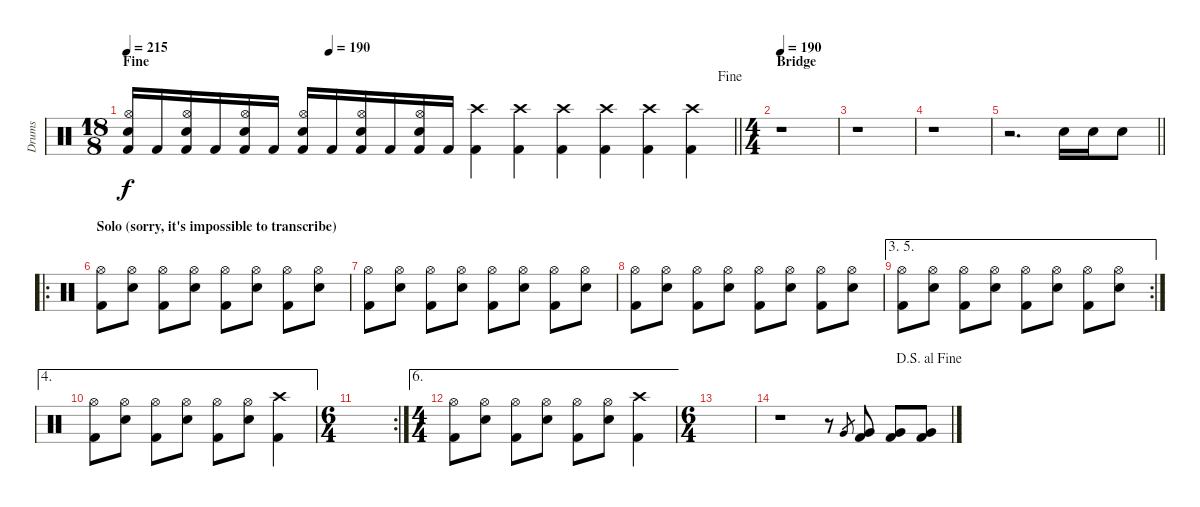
\track ("Drums" "Drums") {instrument percussion bank 127}
\staff {score}
\articulation defaults
\ts (18 8)
\section ("" "Fine")
\jump fine
\tempo 215
\tempo (190 0.3333333333333333)
\clef neutral
\barLineRight lightlight
\ks c
("Electric Snare (hit)" "Hi-Hat (open)" "Kick (hit) 2").16{dy f} "Kick (hit) 2".16 ("Electric Snare (hit)" "Hi-Hat (open)" "Kick (hit) 2").16 "Kick (hit) 2".16 ("Electric Snare (hit)" "Hi-Hat (open)" "Kick (hit) 2").16 "Kick (hit) 2".16 ("Electric Snare (hit)" "Hi-Hat (open)" "Kick (hit) 2").16 "Kick (hit) 2".16 ("Electric Snare (hit)" "Hi-Hat (open)" "Kick (hit) 2").16 "Kick (hit) 2".16 ("Electric Snare (hit)" "Hi-Hat (open)" "Kick (hit) 2").16 "Kick (hit) 2".16 ("Crash high (hit)" "Kick (hit) 2").4 ("Crash high (hit)" "Kick (hit) 2").4 ("Crash high (hit)" "Kick (hit) 2").4 ("Crash high (hit)" "Kick (hit) 2").4 ("Crash high (hit)" "Kick (hit) 2").4 ("Crash high (hit)" "Kick (hit) 2").4 |
\ts (4 4)
\section ("" "Bridge")
\tempo 190
r.1 |
r.1 |
r.1 |
\barLineRight lightlight
r.2{d} "Electric Snare (hit)".16 "Electric Snare (hit)".16 "Electric Snare (hit)".8 |
\ro
\section ("" "Solo (sorry, it's impossible to transcribe)")
("Hi-Hat (open)" "Kick (hit) 2").8 ("Hi-Hat (open)" "Electric Snare (hit)").8 ("Hi-Hat (open)" "Kick (hit) 2").8 ("Hi-Hat (open)" "Electric Snare (hit)").8 ("Hi-Hat (open)" "Kick (hit) 2").8 ("Hi-Hat (open)" "Electric Snare (hit)").8 ("Hi-Hat (open)" "Kick (hit) 2").8 ("Hi-Hat (open)" "Electric Snare (hit)").8 |
("Hi-Hat (open)" "Kick (hit) 2").8 ("Hi-Hat (open)" "Electric Snare (hit)").8 ("Hi-Hat (open)" "Kick (hit) 2").8 ("Hi-Hat (open)" "Electric Snare (hit)").8 ("Hi-Hat (open)" "Kick (hit) 2").8 ("Hi-Hat (open)" "Electric Snare (hit)").8 ("Hi-Hat (open)" "Kick (hit) 2").8 ("Hi-Hat (open)" "Electric Snare (hit)").8 |
("Hi-Hat (open)" "Kick (hit) 2").8 ("Hi-Hat (open)" "Electric Snare (hit)").8 ("Hi-Hat (open)" "Kick (hit) 2").8 ("Hi-Hat (open)" "Electric Snare (hit)").8 ("Hi-Hat (open)" "Kick (hit) 2").8 ("Hi-Hat (open)" "Electric Snare (hit)").8 ("Hi-Hat (open)" "Kick (hit) 2").8 ("Hi-Hat (open)" "Electric Snare (hit)").8 |
\ae (3 5)
\rc 2
("Hi-Hat (open)" "Kick (hit) 2").8 ("Hi-Hat (open)" "Electric Snare (hit)").8 ("Hi-Hat (open)" "Kick (hit) 2").8 ("Hi-Hat (open)" "Electric Snare (hit)").8 ("Hi-Hat (open)" "Kick (hit) 2").8 ("Hi-Hat (open)" "Electric Snare (hit)").8 ("Hi-Hat (open)" "Kick (hit) 2").8 ("Hi-Hat (open)" "Electric Snare (hit)").8 |
\ae 4
("Hi-Hat (open)" "Kick (hit) 2").8 ("Hi-Hat (open)" "Electric Snare (hit)").8 ("Hi-Hat (open)" "Kick (hit) 2").8 ("Hi-Hat (open)" "Electric Snare (hit)").8 ("Hi-Hat (open)" "Kick (hit) 2").8 ("Hi-Hat (open)" "Electric Snare (hit)").8 ("Crash high (hit)" "Kick (hit) 2").4 |
\rc 2
\ts (6 4)
|
\ae 6
\ts (4 4)
("Hi-Hat (open)" "Kick (hit) 2").8 ("Hi-Hat (open)" "Electric Snare (hit)").8 ("Hi-Hat (open)" "Kick (hit) 2").8 ("Hi-Hat (open)" "Electric Snare (hit)").8 ("Hi-Hat (open)" "Kick (hit) 2").8 ("Hi-Hat (open)" "Electric Snare (hit)").8 ("Crash high (hit)" "Kick (hit) 2").4 |
\ts (6 4)
|
\jump dalsegnoalfine
r.1 r.8 "Very Low Tom (hit)".8{gr} ("Very Low Tom (hit)" "Kick (hit) 2").8 ("Very Low Tom (hit)" "Kick (hit) 2").8 ("Very Low Tom (hit)" "Kick (hit) 2").8
